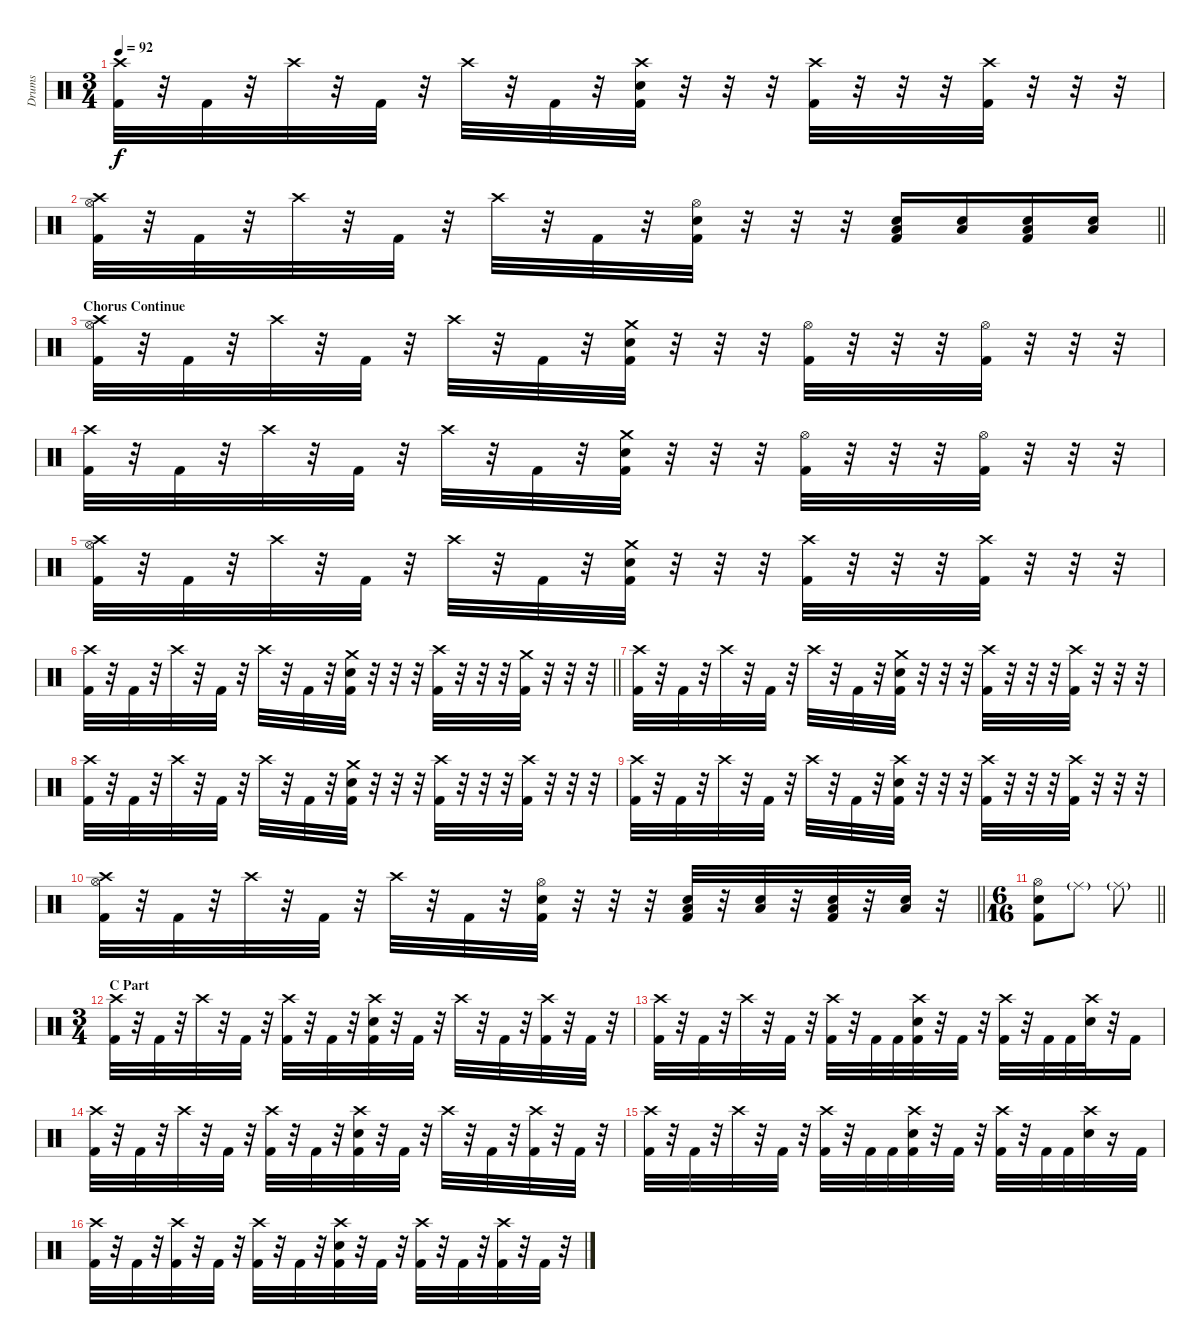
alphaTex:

\track ("Drums" "Drums") {instrument percussion}
\staff {score}
\articulation defaults
\ts (3 4)
\tempo 92
\clef neutral
\ks c
("Crash high (hit)" "Kick (hit) 2").32{dy f} r.32 "Kick (hit) 2".32 r.32 "Crash high (hit)".32 r.32 "Kick (hit) 2".32 r.32 "Crash high (hit)".32 r.32 "Kick (hit) 2".32 r.32 ("Crash high (hit)" "Electric Snare (hit)" "Kick (hit) 2").32 r.32 r.32 r.32 ("Crash high (hit)" "Kick (hit) 2").32 r.32 r.32 r.32 ("Crash high (hit)" "Kick (hit) 2").32 r.32 r.32 r.32 |
\barLineRight lightlight
("Crash high (hit)" "Hi-Hat (open)" "Kick (hit) 2").32 r.32 "Kick (hit) 2".32 r.32 "Crash high (hit)".32 r.32 "Kick (hit) 2".32 r.32 "Crash high (hit)".32 r.32 "Kick (hit) 2".32 r.32 ("Hi-Hat (open)" "Electric Snare (hit)" "Kick (hit) 2").32 r.32 r.32 r.32 ("Electric Snare (hit)" "Low Floor Tom (hit)" "Kick (hit) 2").16 ("Electric Snare (hit)" "Low Floor Tom (hit)").16 ("Electric Snare (hit)" "Low Floor Tom (hit)" "Kick (hit) 2").16 ("Electric Snare (hit)" "Low Floor Tom (hit)").16 |
\section ("" "Chorus Continue")
("Crash high (hit)" "Hi-Hat (open)" "Kick (hit) 2").32 r.32 "Kick (hit) 2".32 r.32 "Crash high (hit)".32 r.32 "Kick (hit) 2".32 r.32 "Crash high (hit)".32 r.32 "Kick (hit) 2".32 r.32 ("Crash medium (hit)" "Electric Snare (hit)" "Kick (hit) 2").32 r.32 r.32 r.32 ("Hi-Hat (open)" "Kick (hit) 2").32 r.32 r.32 r.32 ("Hi-Hat (open)" "Kick (hit) 2").32 r.32 r.32 r.32 |
("Crash high (hit)" "Kick (hit) 2").32 r.32 "Kick (hit) 2".32 r.32 "Crash high (hit)".32 r.32 "Kick (hit) 2".32 r.32 "Crash high (hit)".32 r.32 "Kick (hit) 2".32 r.32 ("Crash medium (hit)" "Electric Snare (hit)" "Kick (hit) 2").32 r.32 r.32 r.32 ("Hi-Hat (open)" "Kick (hit) 2").32 r.32 r.32 r.32 ("Hi-Hat (open)" "Kick (hit) 2").32 r.32 r.32 r.32 |
("Crash high (hit)" "Hi-Hat (open)" "Kick (hit) 2").32 r.32 "Kick (hit) 2".32 r.32 "Crash high (hit)".32 r.32 "Kick (hit) 2".32 r.32 "Crash high (hit)".32 r.32 "Kick (hit) 2".32 r.32 ("Crash medium (hit)" "Electric Snare (hit)" "Kick (hit) 2").32 r.32 r.32 r.32 ("Crash high (hit)" "Kick (hit) 2").32 r.32 r.32 r.32 ("Crash high (hit)" "Kick (hit) 2").32 r.32 r.32 r.32 |
\barLineRight lightlight
("Crash high (hit)" "Kick (hit) 2").32 r.32 "Kick (hit) 2".32 r.32 "Crash high (hit)".32 r.32 "Kick (hit) 2".32 r.32 "Crash high (hit)".32 r.32 "Kick (hit) 2".32 r.32 ("Crash medium (hit)" "Electric Snare (hit)" "Kick (hit) 2").32 r.32 r.32 r.32 ("Crash high (hit)" "Kick (hit) 2").32 r.32 r.32 r.32 ("Crash medium (hit)" "Kick (hit) 2").32 r.32 r.32 r.32 |
("Crash high (hit)" "Kick (hit) 2").32 r.32 "Kick (hit) 2".32 r.32 "Crash high (hit)".32 r.32 "Kick (hit) 2".32 r.32 "Crash high (hit)".32 r.32 "Kick (hit) 2".32 r.32 ("Crash medium (hit)" "Electric Snare (hit)" "Kick (hit) 2").32 r.32 r.32 r.32 ("Crash high (hit)" "Kick (hit) 2").32 r.32 r.32 r.32 ("Crash high (hit)" "Kick (hit) 2").32 r.32 r.32 r.32 |
("Crash high (hit)" "Kick (hit) 2").32 r.32 "Kick (hit) 2".32 r.32 "Crash high (hit)".32 r.32 "Kick (hit) 2".32 r.32 "Crash high (hit)".32 r.32 "Kick (hit) 2".32 r.32 ("Crash medium (hit)" "Electric Snare (hit)" "Kick (hit) 2").32 r.32 r.32 r.32 ("Crash high (hit)" "Kick (hit) 2").32 r.32 r.32 r.32 ("Crash high (hit)" "Kick (hit) 2").32 r.32 r.32 r.32 |
("Crash high (hit)" "Kick (hit) 2").32 r.32 "Kick (hit) 2".32 r.32 "Crash high (hit)".32 r.32 "Kick (hit) 2".32 r.32 "Crash high (hit)".32 r.32 "Kick (hit) 2".32 r.32 ("Crash high (hit)" "Electric Snare (hit)" "Kick (hit) 2").32 r.32 r.32 r.32 ("Crash high (hit)" "Kick (hit) 2").32 r.32 r.32 r.32 ("Crash high (hit)" "Kick (hit) 2").32 r.32 r.32 r.32 |
\barLineRight lightlight
("Crash high (hit)" "Hi-Hat (open)" "Kick (hit) 2").32 r.32 "Kick (hit) 2".32 r.32 "Crash high (hit)".32 r.32 "Kick (hit) 2".32 r.32 "Crash high (hit)".32 r.32 "Kick (hit) 2".32 r.32 ("Hi-Hat (open)" "Electric Snare (hit)" "Kick (hit) 2").32 r.32 r.32 r.32 ("Electric Snare (hit)" "Low Floor Tom (hit)" "Kick (hit) 2").32 r.32 ("Electric Snare (hit)" "Low Floor Tom (hit)").32 r.32 ("Electric Snare (hit)" "Low Floor Tom (hit)" "Kick (hit) 2").32 r.32 ("Electric Snare (hit)" "Low Floor Tom (hit)").32 r.32 |
\ts (6 16)
\barLineRight lightlight
("Hi-Hat (open)" "Electric Snare (hit)" "Kick (hit) 2").8 "Ride (middle)"{g}.8 "Ride (middle)"{g}.8 |
\ts (3 4)
\section ("" "C Part ")
("Crash high (hit)" "Kick (hit) 2").32 r.32 "Kick (hit) 2".32 r.32 "Crash high (hit)".32 r.32 "Kick (hit) 2".32 r.32 ("Crash high (hit)" "Kick (hit) 2").32 r.32 "Kick (hit) 2".32 r.32 ("Crash high (hit)" "Electric Snare (hit)" "Kick (hit) 2").32 r.32 "Kick (hit) 2".32 r.32 "Crash high (hit)".32 r.32 "Kick (hit) 2".32 r.32 ("Crash high (hit)" "Kick (hit) 2").32 r.32 "Kick (hit) 2".32 r.32 |
("Crash high (hit)" "Kick (hit) 2").32 r.32 "Kick (hit) 2".32 r.32 "Crash high (hit)".32 r.32 "Kick (hit) 2".32 r.32 ("Crash high (hit)" "Kick (hit) 2").32 r.32 "Kick (hit) 2".32 "Kick (hit) 2".32 ("Crash high (hit)" "Electric Snare (hit)" "Kick (hit) 2").32 r.32 "Kick (hit) 2".32 r.32 ("Crash high (hit)" "Kick (hit) 2").32 r.32 "Kick (hit) 2".32 "Kick (hit) 2".32 ("Crash high (hit)" "Electric Snare (hit)").32 r.32 "Kick (hit) 2".16 |
("Crash high (hit)" "Kick (hit) 2").32 r.32 "Kick (hit) 2".32 r.32 "Crash high (hit)".32 r.32 "Kick (hit) 2".32 r.32 ("Crash high (hit)" "Kick (hit) 2").32 r.32 "Kick (hit) 2".32 r.32 ("Crash high (hit)" "Electric Snare (hit)" "Kick (hit) 2").32 r.32 "Kick (hit) 2".32 r.32 "Crash high (hit)".32 r.32 "Kick (hit) 2".32 r.32 ("Crash high (hit)" "Kick (hit) 2").32 r.32 "Kick (hit) 2".32 r.32 |
("Crash high (hit)" "Kick (hit) 2").32 r.32 "Kick (hit) 2".32 r.32 "Crash high (hit)".32 r.32 "Kick (hit) 2".32 r.32 ("Crash high (hit)" "Kick (hit) 2").32 r.32 "Kick (hit) 2".32 "Kick (hit) 2".32 ("Crash high (hit)" "Electric Snare (hit)" "Kick (hit) 2").32 r.32 "Kick (hit) 2".32 r.32 ("Crash high (hit)" "Kick (hit) 2").32 r.32 "Kick (hit) 2".32 "Kick (hit) 2".32 ("Crash high (hit)" "Electric Snare (hit)").32 r.16 "Kick (hit) 2".32 |
("Crash high (hit)" "Kick (hit) 2").32 r.32 "Kick (hit) 2".32 r.32 ("Crash high (hit)" "Kick (hit) 2").32 r.32 "Kick (hit) 2".32 r.32 ("Crash high (hit)" "Kick (hit) 2").32 r.32 "Kick (hit) 2".32 r.32 ("Crash high (hit)" "Electric Snare (hit)" "Kick (hit) 2").32 r.32 "Kick (hit) 2".32 r.32 ("Crash high (hit)" "Kick (hit) 2").32 r.32 "Kick (hit) 2".32 r.32 ("Crash high (hit)" "Kick (hit) 2").32 r.32 "Kick (hit) 2".32 r.32
